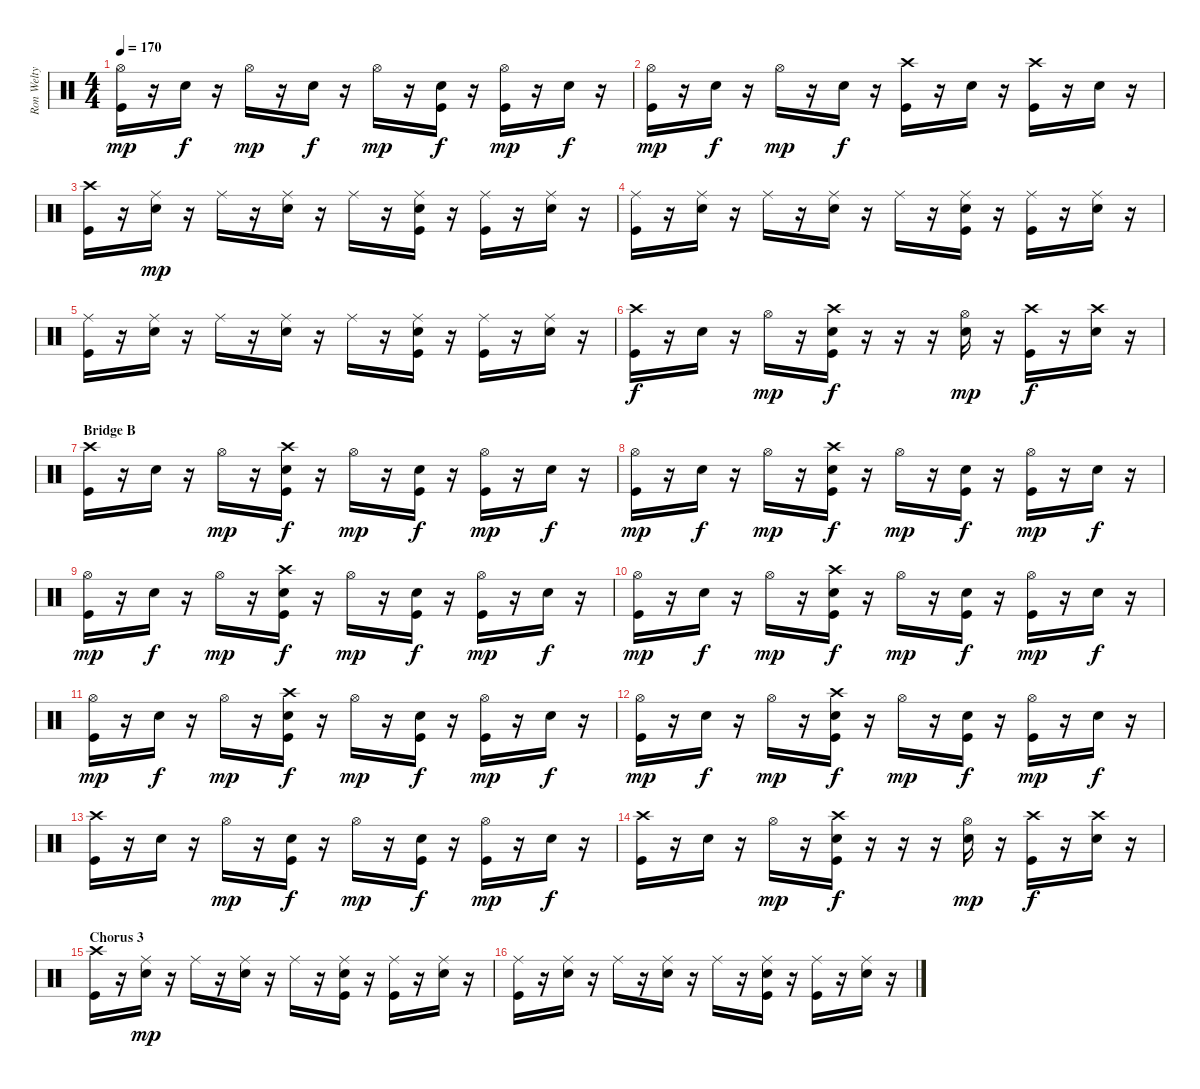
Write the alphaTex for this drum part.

\track ("Ron Welty" "Ron Welty") {instrument percussion}
\staff {score}
\articulation defaults
\ts (4 4)
\tempo 170
\clef neutral
\ks c
("Hi-Hat (open)" "Kick (hit)").16{dy mp} r.16 "Snare (hit) 2".16{dy f} r.16 "Hi-Hat (open)".16{dy mp} r.16 "Snare (hit) 2".16{dy f} r.16 "Hi-Hat (open)".16{dy mp} r.16 ("Snare (hit) 2" "Kick (hit)").16{dy f} r.16 ("Hi-Hat (open)" "Kick (hit)").16{dy mp} r.16 "Snare (hit) 2".16{dy f} r.16 |
("Hi-Hat (open)" "Kick (hit)").16{dy mp} r.16 "Snare (hit) 2".16{dy f} r.16 "Hi-Hat (open)".16{dy mp} r.16 "Snare (hit) 2".16{dy f} r.16 ("Crash high (hit)" "Kick (hit)").16 r.16 "Snare (hit) 2".16 r.16 ("Crash high (hit)" "Kick (hit)").16 r.16 "Snare (hit) 2".16 r.16 |
("Crash high (hit)" "Kick (hit)").16 r.16 ("Ride (middle)" "Snare (hit) 2").16{dy mp} r.16 "Ride (middle)".16 r.16 ("Ride (middle)" "Snare (hit) 2").16 r.16 "Ride (middle)".16 r.16 ("Ride (middle)" "Snare (hit) 2" "Kick (hit)").16 r.16 ("Ride (middle)" "Kick (hit)").16 r.16 ("Ride (middle)" "Snare (hit) 2").16 r.16 |
("Ride (middle)" "Kick (hit)").16 r.16 ("Ride (middle)" "Snare (hit) 2").16 r.16 "Ride (middle)".16 r.16 ("Ride (middle)" "Snare (hit) 2").16 r.16 "Ride (middle)".16 r.16 ("Ride (middle)" "Snare (hit) 2" "Kick (hit)").16 r.16 ("Ride (middle)" "Kick (hit)").16 r.16 ("Ride (middle)" "Snare (hit) 2").16 r.16 |
("Ride (middle)" "Kick (hit)").16 r.16 ("Ride (middle)" "Snare (hit) 2").16 r.16 "Ride (middle)".16 r.16 ("Ride (middle)" "Snare (hit) 2").16 r.16 "Ride (middle)".16 r.16 ("Ride (middle)" "Snare (hit) 2" "Kick (hit)").16 r.16 ("Ride (middle)" "Kick (hit)").16 r.16 ("Ride (middle)" "Snare (hit) 2").16 r.16 |
("Crash high (hit)" "Kick (hit)").16{dy f} r.16 "Snare (hit) 2".16 r.16 "Hi-Hat (open)".16{dy mp} r.16 ("Crash high (hit)" "Snare (hit) 2" "Kick (hit)").16{dy f} r.16 r.16 r.16 ("Hi-Hat (open)" "Snare (hit) 2").16{dy mp} r.16 ("Crash high (hit)" "Kick (hit)").16{dy f} r.16 ("Crash high (hit)" "Snare (hit) 2").16 r.16 |
\section ("" "Bridge B")
("Crash high (hit)" "Kick (hit)").16 r.16 "Snare (hit) 2".16 r.16 "Hi-Hat (open)".16{dy mp} r.16 ("Crash high (hit)" "Snare (hit) 2" "Kick (hit)").16{dy f} r.16 "Hi-Hat (open)".16{dy mp} r.16 ("Snare (hit) 2" "Kick (hit)").16{dy f} r.16 ("Hi-Hat (open)" "Kick (hit)").16{dy mp} r.16 "Snare (hit) 2".16{dy f} r.16 |
("Hi-Hat (open)" "Kick (hit)").16{dy mp} r.16 "Snare (hit) 2".16{dy f} r.16 "Hi-Hat (open)".16{dy mp} r.16 ("Crash high (hit)" "Snare (hit) 2" "Kick (hit)").16{dy f} r.16 "Hi-Hat (open)".16{dy mp} r.16 ("Snare (hit) 2" "Kick (hit)").16{dy f} r.16 ("Hi-Hat (open)" "Kick (hit)").16{dy mp} r.16 "Snare (hit) 2".16{dy f} r.16 |
("Hi-Hat (open)" "Kick (hit)").16{dy mp} r.16 "Snare (hit) 2".16{dy f} r.16 "Hi-Hat (open)".16{dy mp} r.16 ("Crash high (hit)" "Snare (hit) 2" "Kick (hit)").16{dy f} r.16 "Hi-Hat (open)".16{dy mp} r.16 ("Snare (hit) 2" "Kick (hit)").16{dy f} r.16 ("Hi-Hat (open)" "Kick (hit)").16{dy mp} r.16 "Snare (hit) 2".16{dy f} r.16 |
("Hi-Hat (open)" "Kick (hit)").16{dy mp} r.16 "Snare (hit) 2".16{dy f} r.16 "Hi-Hat (open)".16{dy mp} r.16 ("Crash high (hit)" "Snare (hit) 2" "Kick (hit)").16{dy f} r.16 "Hi-Hat (open)".16{dy mp} r.16 ("Snare (hit) 2" "Kick (hit)").16{dy f} r.16 ("Hi-Hat (open)" "Kick (hit)").16{dy mp} r.16 "Snare (hit) 2".16{dy f} r.16 |
("Hi-Hat (open)" "Kick (hit)").16{dy mp} r.16 "Snare (hit) 2".16{dy f} r.16 "Hi-Hat (open)".16{dy mp} r.16 ("Crash high (hit)" "Snare (hit) 2" "Kick (hit)").16{dy f} r.16 "Hi-Hat (open)".16{dy mp} r.16 ("Snare (hit) 2" "Kick (hit)").16{dy f} r.16 ("Hi-Hat (open)" "Kick (hit)").16{dy mp} r.16 "Snare (hit) 2".16{dy f} r.16 |
("Hi-Hat (open)" "Kick (hit)").16{dy mp} r.16 "Snare (hit) 2".16{dy f} r.16 "Hi-Hat (open)".16{dy mp} r.16 ("Crash high (hit)" "Snare (hit) 2" "Kick (hit)").16{dy f} r.16 "Hi-Hat (open)".16{dy mp} r.16 ("Snare (hit) 2" "Kick (hit)").16{dy f} r.16 ("Hi-Hat (open)" "Kick (hit)").16{dy mp} r.16 "Snare (hit) 2".16{dy f} r.16 |
("Crash high (hit)" "Kick (hit)").16 r.16 "Snare (hit) 2".16 r.16 "Hi-Hat (open)".16{dy mp} r.16 ("Snare (hit) 2" "Kick (hit)").16{dy f} r.16 "Hi-Hat (open)".16{dy mp} r.16 ("Snare (hit) 2" "Kick (hit)").16{dy f} r.16 ("Hi-Hat (open)" "Kick (hit)").16{dy mp} r.16 "Snare (hit) 2".16{dy f} r.16 |
("Crash high (hit)" "Kick (hit)").16 r.16 "Snare (hit) 2".16 r.16 "Hi-Hat (open)".16{dy mp} r.16 ("Crash high (hit)" "Snare (hit) 2" "Kick (hit)").16{dy f} r.16 r.16 r.16 ("Hi-Hat (open)" "Snare (hit) 2").16{dy mp} r.16 ("Crash high (hit)" "Kick (hit)").16{dy f} r.16 ("Crash high (hit)" "Snare (hit) 2").16 r.16 |
\section ("" "Chorus 3")
("Crash high (hit)" "Kick (hit)").16 r.16 ("Ride (middle)" "Snare (hit) 2").16{dy mp} r.16 "Ride (middle)".16 r.16 ("Ride (middle)" "Snare (hit) 2").16 r.16 "Ride (middle)".16 r.16 ("Ride (middle)" "Snare (hit) 2" "Kick (hit)").16 r.16 ("Ride (middle)" "Kick (hit)").16 r.16 ("Ride (middle)" "Snare (hit) 2").16 r.16 |
("Ride (middle)" "Kick (hit)").16 r.16 ("Ride (middle)" "Snare (hit) 2").16 r.16 "Ride (middle)".16 r.16 ("Ride (middle)" "Snare (hit) 2").16 r.16 "Ride (middle)".16 r.16 ("Ride (middle)" "Snare (hit) 2" "Kick (hit)").16 r.16 ("Ride (middle)" "Kick (hit)").16 r.16 ("Ride (middle)" "Snare (hit) 2").16 r.16
